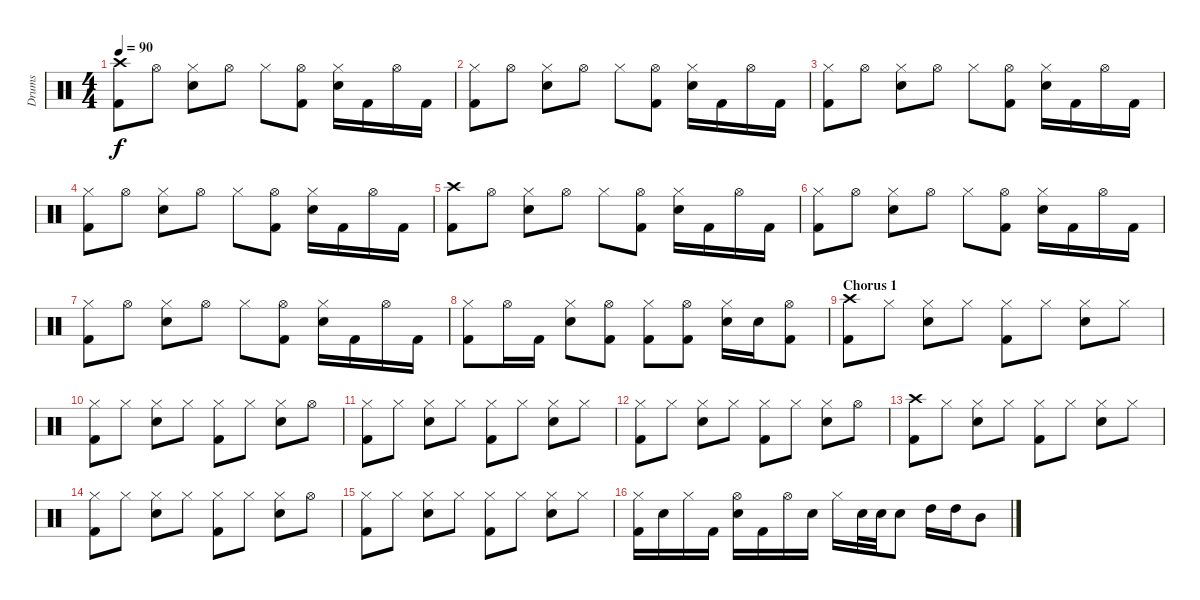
\track ("Drums" "Drums") {instrument percussion}
\staff {score}
\articulation defaults
\ts (4 4)
\tempo 90
\clef neutral
\ks c
("Crash high (hit)" "Kick (hit) 2").8{dy f} "Hi-Hat (open)".8 ("Hi-Hat (closed)" "Electric Snare (hit)").8 "Hi-Hat (open)".8 "Hi-Hat (closed)".8 ("Hi-Hat (open)" "Kick (hit) 2").8 ("Hi-Hat (closed)" "Electric Snare (hit)").16 "Kick (hit) 2".16 "Hi-Hat (open)".16 "Kick (hit) 2".16 |
("Hi-Hat (closed)" "Kick (hit) 2").8 "Hi-Hat (open)".8 ("Hi-Hat (closed)" "Electric Snare (hit)").8 "Hi-Hat (open)".8 "Hi-Hat (closed)".8 ("Hi-Hat (open)" "Kick (hit) 2").8 ("Hi-Hat (closed)" "Electric Snare (hit)").16 "Kick (hit) 2".16 "Hi-Hat (open)".16 "Kick (hit) 2".16 |
("Hi-Hat (closed)" "Kick (hit) 2").8 "Hi-Hat (open)".8 ("Hi-Hat (closed)" "Electric Snare (hit)").8 "Hi-Hat (open)".8 "Hi-Hat (closed)".8 ("Hi-Hat (open)" "Kick (hit) 2").8 ("Hi-Hat (closed)" "Electric Snare (hit)").16 "Kick (hit) 2".16 "Hi-Hat (open)".16 "Kick (hit) 2".16 |
("Hi-Hat (closed)" "Kick (hit) 2").8 "Hi-Hat (open)".8 ("Hi-Hat (closed)" "Electric Snare (hit)").8 "Hi-Hat (open)".8 "Hi-Hat (closed)".8 ("Hi-Hat (open)" "Kick (hit) 2").8 ("Hi-Hat (closed)" "Electric Snare (hit)").16 "Kick (hit) 2".16 "Hi-Hat (open)".16 "Kick (hit) 2".16 |
("Crash high (hit)" "Kick (hit) 2").8 "Hi-Hat (open)".8 ("Hi-Hat (closed)" "Electric Snare (hit)").8 "Hi-Hat (open)".8 "Hi-Hat (closed)".8 ("Hi-Hat (open)" "Kick (hit) 2").8 ("Hi-Hat (closed)" "Electric Snare (hit)").16 "Kick (hit) 2".16 "Hi-Hat (open)".16 "Kick (hit) 2".16 |
("Hi-Hat (closed)" "Kick (hit) 2").8 "Hi-Hat (open)".8 ("Hi-Hat (closed)" "Electric Snare (hit)").8 "Hi-Hat (open)".8 "Hi-Hat (closed)".8 ("Hi-Hat (open)" "Kick (hit) 2").8 ("Hi-Hat (closed)" "Electric Snare (hit)").16 "Kick (hit) 2".16 "Hi-Hat (open)".16 "Kick (hit) 2".16 |
("Hi-Hat (closed)" "Kick (hit) 2").8 "Hi-Hat (open)".8 ("Hi-Hat (closed)" "Electric Snare (hit)").8 "Hi-Hat (open)".8 "Hi-Hat (closed)".8 ("Hi-Hat (open)" "Kick (hit) 2").8 ("Hi-Hat (closed)" "Electric Snare (hit)").16 "Kick (hit) 2".16 "Hi-Hat (open)".16 "Kick (hit) 2".16 |
("Hi-Hat (closed)" "Kick (hit) 2").8 "Hi-Hat (open)".16 "Kick (hit) 2".16 ("Hi-Hat (closed)" "Electric Snare (hit)").8 ("Hi-Hat (open)" "Kick (hit) 2").8 ("Hi-Hat (closed)" "Kick (hit) 2").8 ("Hi-Hat (open)" "Kick (hit) 2").8 ("Hi-Hat (closed)" "Electric Snare (hit)").16 "Electric Snare (hit)".16 ("Hi-Hat (open)" "Kick (hit) 2").8 |
\section ("" "Chorus 1")
("Crash high (hit)" "Kick (hit) 2").8 "Hi-Hat (closed)".8 ("Hi-Hat (closed)" "Electric Snare (hit)").8 "Hi-Hat (closed)".8 ("Hi-Hat (closed)" "Kick (hit) 2").8 "Hi-Hat (closed)".8 ("Hi-Hat (closed)" "Electric Snare (hit)").8 "Hi-Hat (closed)".8 |
("Hi-Hat (closed)" "Kick (hit) 2").8 "Hi-Hat (closed)".8 ("Hi-Hat (closed)" "Electric Snare (hit)").8 "Hi-Hat (closed)".8 ("Hi-Hat (closed)" "Kick (hit) 2").8 "Hi-Hat (closed)".8 ("Hi-Hat (closed)" "Electric Snare (hit)").8 "Hi-Hat (open)".8 |
("Hi-Hat (closed)" "Kick (hit) 2").8 "Hi-Hat (closed)".8 ("Hi-Hat (closed)" "Electric Snare (hit)").8 "Hi-Hat (closed)".8 ("Hi-Hat (closed)" "Kick (hit) 2").8 "Hi-Hat (closed)".8 ("Hi-Hat (closed)" "Electric Snare (hit)").8 "Hi-Hat (closed)".8 |
("Hi-Hat (closed)" "Kick (hit) 2").8 "Hi-Hat (closed)".8 ("Hi-Hat (closed)" "Electric Snare (hit)").8 "Hi-Hat (closed)".8 ("Hi-Hat (closed)" "Kick (hit) 2").8 "Hi-Hat (closed)".8 ("Hi-Hat (closed)" "Electric Snare (hit)").8 "Hi-Hat (open)".8 |
("Crash high (hit)" "Kick (hit) 2").8 "Hi-Hat (closed)".8 ("Hi-Hat (closed)" "Electric Snare (hit)").8 "Hi-Hat (closed)".8 ("Hi-Hat (closed)" "Kick (hit) 2").8 "Hi-Hat (closed)".8 ("Hi-Hat (closed)" "Electric Snare (hit)").8 "Hi-Hat (closed)".8 |
("Hi-Hat (closed)" "Kick (hit) 2").8 "Hi-Hat (closed)".8 ("Hi-Hat (closed)" "Electric Snare (hit)").8 "Hi-Hat (closed)".8 ("Hi-Hat (closed)" "Kick (hit) 2").8 "Hi-Hat (closed)".8 ("Hi-Hat (closed)" "Electric Snare (hit)").8 "Hi-Hat (open)".8 |
("Hi-Hat (closed)" "Kick (hit) 2").8 "Hi-Hat (closed)".8 ("Hi-Hat (closed)" "Electric Snare (hit)").8 "Hi-Hat (closed)".8 ("Hi-Hat (closed)" "Kick (hit) 2").8 "Hi-Hat (closed)".8 ("Hi-Hat (closed)" "Electric Snare (hit)").8 "Hi-Hat (closed)".8 |
("Hi-Hat (closed)" "Kick (hit) 2").16 "Electric Snare (hit)".16 "Hi-Hat (closed)".16 "Kick (hit) 2".16 ("Hi-Hat (open)" "Electric Snare (hit)").16 "Kick (hit) 2".16 "Hi-Hat (open)".16 "Electric Snare (hit)".16 "Hi-Hat (closed)".16 "Electric Snare (hit)".32 "Electric Snare (hit)".32 "Electric Snare (hit)".8 "High Tom (hit)".16 "High Tom (hit)".16 "Mid Tom (hit)".8
